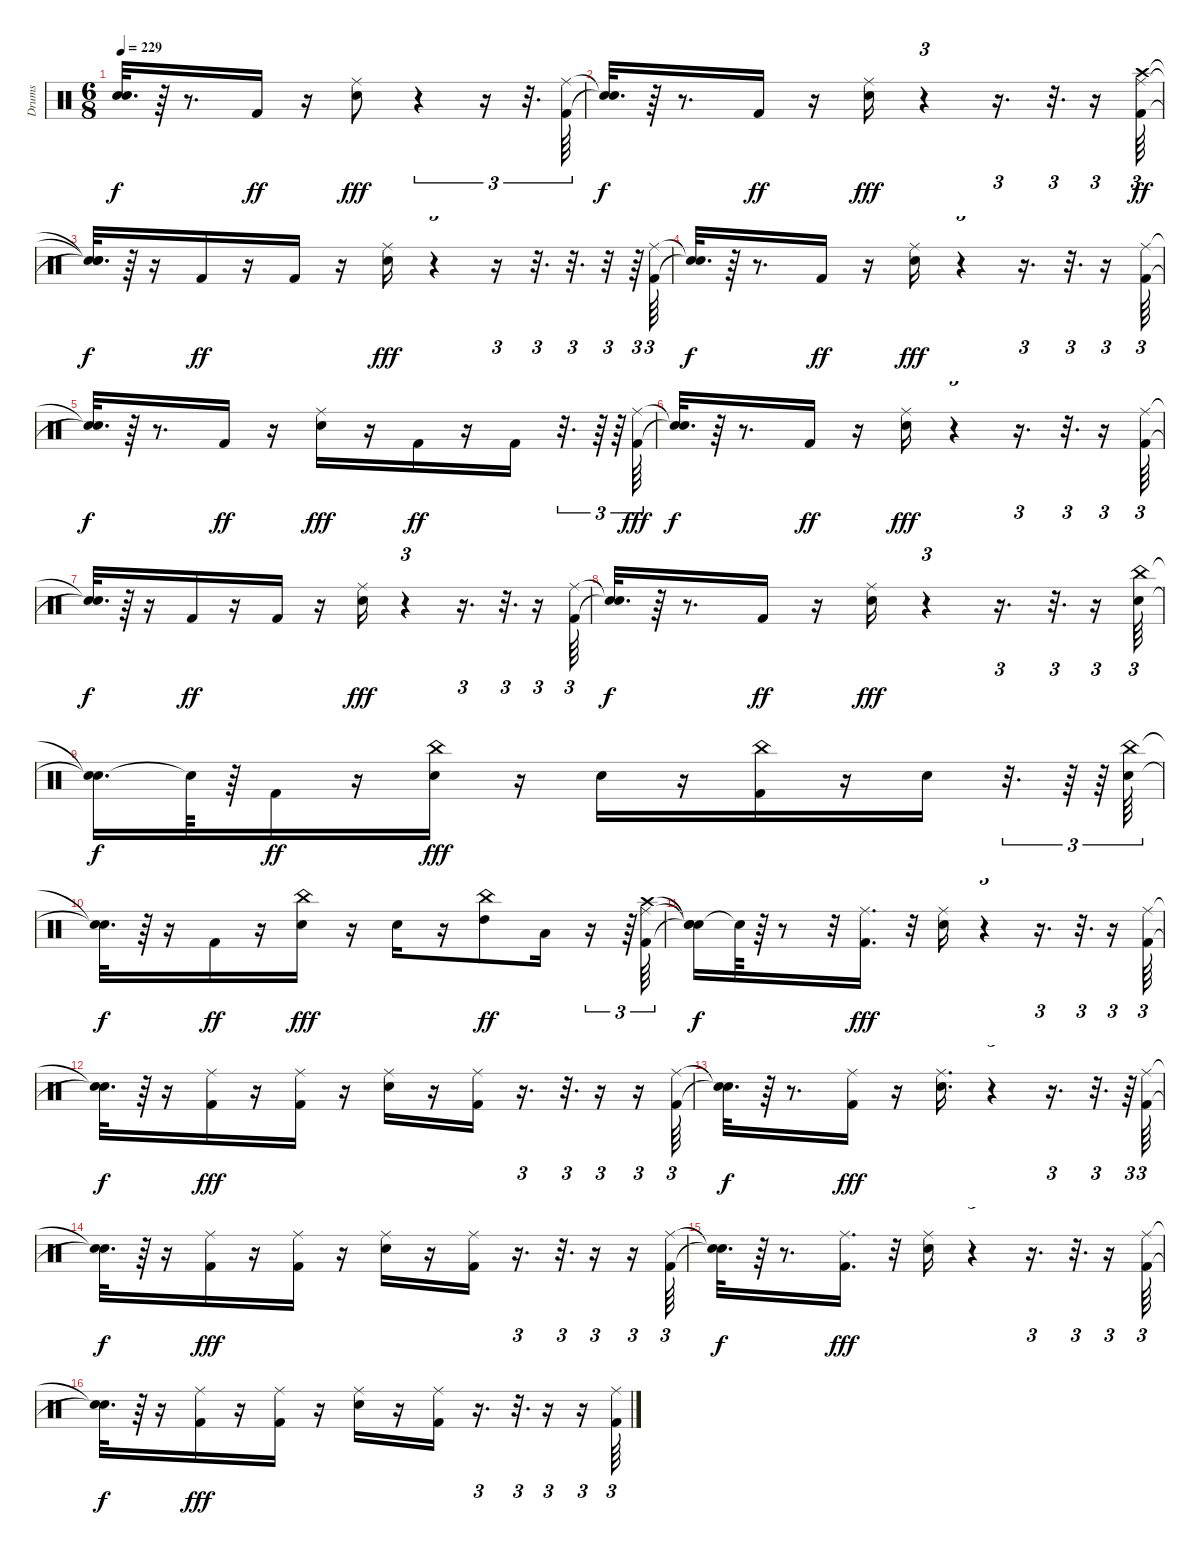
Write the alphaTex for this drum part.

\track ("Drums" "Drums") {instrument percussion}
\staff {score}
\articulation defaults
\ts (6 8)
\tempo 229
\clef neutral
\ks c
("Snare (hit)"{t} "Snare (hit)"{t}).32{d dy f} r.64 r.8{d} "Kick (hit) 2".16{dy ff} r.16 ("Snare (hit) 2" "Ride (middle)").8{dy fff} r.4{tu (3 2)} r.16{tu (3 2)} r.32{d tu (3 2)} ("Kick (hit) 2" "Ride (middle)").64{tu (3 2)} |
("Snare (hit)"{t} "Snare (hit)"{t}).32{d dy f} r.64 r.8{d} "Kick (hit) 2".16{dy ff} r.16 ("Snare (hit) 2" "Ride (middle)").16{dy fff} r.4{tu (3 2)} r.16{d tu (3 2)} r.32{d tu (3 2)} r.16{tu (3 2)} ("Kick (hit) 2" "Ride (middle)" "Crash high (hit)").64{tu (3 2) dy ff} |
("Snare (hit)"{t} "Snare (hit)"{t} "Snare (hit)"{t}).32{d dy f} r.64 r.16 "Kick (hit) 2".16{dy ff} r.16 "Kick (hit) 2".16 r.16 ("Snare (hit) 2" "Ride (middle)").16{dy fff} r.4{tu (3 2)} r.16{tu (3 2)} r.32{d tu (3 2)} r.32{d tu (3 2)} r.32{tu (3 2)} r.64{tu (3 2)} ("Kick (hit) 2" "Ride (middle)").64{tu (3 2)} |
("Snare (hit)"{t} "Snare (hit)"{t}).32{d dy f} r.64 r.8{d} "Kick (hit) 2".16{dy ff} r.16 ("Snare (hit) 2" "Ride (middle)").16{dy fff} r.4{tu (3 2)} r.16{d tu (3 2)} r.32{d tu (3 2)} r.16{tu (3 2)} ("Kick (hit) 2" "Ride (middle)").64{tu (3 2)} |
("Snare (hit)"{t} "Snare (hit)"{t}).32{d dy f} r.64 r.8{d} "Kick (hit) 2".16{dy ff} r.16 ("Snare (hit) 2" "Ride (middle)").16{dy fff} r.16 "Kick (hit) 2".16{dy ff} r.16 "Kick (hit) 2".16 r.32{d tu (3 2)} r.64{tu (3 2)} r.64{tu (3 2)} ("Kick (hit) 2" "Ride (middle)").64{tu (3 2) dy fff} |
("Snare (hit)"{t} "Snare (hit)"{t}).32{d dy f} r.64 r.8{d} "Kick (hit) 2".16{dy ff} r.16 ("Snare (hit) 2" "Ride (middle)").16{dy fff} r.4{tu (3 2)} r.16{d tu (3 2)} r.32{d tu (3 2)} r.16{tu (3 2)} ("Kick (hit) 2" "Ride (middle)").64{tu (3 2)} |
("Snare (hit)"{t} "Snare (hit)"{t}).32{d dy f} r.64 r.16 "Kick (hit) 2".16{dy ff} r.16 "Kick (hit) 2".16 r.16 ("Snare (hit) 2" "Ride (middle)").16{dy fff} r.4{tu (3 2)} r.16{d tu (3 2)} r.32{d tu (3 2)} r.16{tu (3 2)} ("Kick (hit) 2" "Ride (middle)").64{tu (3 2)} |
("Snare (hit)"{t} "Snare (hit)"{t}).32{d dy f} r.64 r.8{d} "Kick (hit) 2".16{dy ff} r.16 ("Snare (hit) 2" "Ride (middle)").16{dy fff} r.4{tu (3 2)} r.16{d tu (3 2)} r.32{d tu (3 2)} r.16{tu (3 2)} ("Snare (hit) 2" "China (hit)").64{tu (3 2)} |
("Snare (hit)"{t} "Snare (hit)"{t}).16{d dy f} "Snare (hit)"{t}.64 r.64 "Kick (hit) 2".16{dy ff} r.16 ("Snare (hit) 2" "China (hit)").16{dy fff} r.16 "Snare (hit) 2".16 r.16 ("Kick (hit) 2" "China (hit)").16 r.16 "Snare (hit) 2".16 r.32{d tu (3 2)} r.64{tu (3 2)} r.64{tu (3 2)} ("Snare (hit) 2" "China (hit)").64{tu (3 2)} |
("Snare (hit)"{t} "Snare (hit)"{t}).32{d dy f} r.64 r.16 "Kick (hit) 2".16{dy ff} r.16 ("Snare (hit) 2" "China (hit)").16{dy fff} r.16 "Snare (hit) 2".16 r.16 ("China (hit)" "High Tom (hit)").8{dy ff} "Low Tom (hit)".16{volume 16} r.16{tu (3 2)} r.64{tu (3 2)} ("Kick (hit) 2" "Ride (middle)" "Crash high (hit)").64{tu (3 2)} |
("Snare (hit)"{t} "Snare (hit)"{t} "Snare (hit)"{t}).16{dy f} "Snare (hit)"{t}.64 r.64 r.8 r.32 ("Kick (hit) 2" "Ride (middle)").16{d dy fff} r.32 ("Snare (hit) 2" "Ride (middle)").16 r.4{tu (3 2)} r.16{d tu (3 2)} r.32{d tu (3 2)} r.16{tu (3 2)} ("Kick (hit) 2" "Ride (middle)").64{tu (3 2)} |
("Snare (hit)"{t} "Snare (hit)"{t}).32{d dy f} r.64 r.16 ("Kick (hit) 2" "Ride (middle)").16{dy fff} r.16 ("Kick (hit) 2" "Ride (middle)").16 r.16 ("Snare (hit) 2" "Ride (middle)").16 r.16 ("Kick (hit) 2" "Ride (middle)").16 r.16{d tu (3 2)} r.32{d tu (3 2)} r.16{tu (3 2)} r.16{tu (3 2)} ("Kick (hit) 2" "Ride (middle)").64{tu (3 2)} |
("Snare (hit)"{t} "Snare (hit)"{t}).32{d dy f} r.64 r.8{d} ("Kick (hit) 2" "Ride (middle)").16{dy fff} r.16 ("Snare (hit) 2" "Ride (middle)").16{d} r.4{tu (3 2)} r.16{d tu (3 2)} r.32{d tu (3 2)} r.64{tu (3 2)} ("Kick (hit) 2" "Ride (middle)").64{tu (3 2)} |
("Snare (hit)"{t} "Snare (hit)"{t}).32{d dy f} r.64 r.16 ("Kick (hit) 2" "Ride (middle)").16{dy fff} r.16 ("Kick (hit) 2" "Ride (middle)").16 r.16 ("Snare (hit) 2" "Ride (middle)").16 r.16 ("Kick (hit) 2" "Ride (middle)").16 r.16{d tu (3 2)} r.32{d tu (3 2)} r.16{tu (3 2)} r.16{tu (3 2)} ("Kick (hit) 2" "Ride (middle)").64{tu (3 2)} |
("Snare (hit)"{t} "Snare (hit)"{t}).32{d dy f} r.64 r.8{d} ("Kick (hit) 2" "Ride (middle)").16{d dy fff} r.32 ("Snare (hit) 2" "Ride (middle)").16 r.4{tu (3 2)} r.16{d tu (3 2)} r.32{d tu (3 2)} r.16{tu (3 2)} ("Kick (hit) 2" "Ride (middle)").64{tu (3 2)} |
("Snare (hit)"{t} "Snare (hit)"{t}).32{d dy f} r.64 r.16 ("Kick (hit) 2" "Ride (middle)").16{dy fff} r.16 ("Kick (hit) 2" "Ride (middle)").16 r.16 ("Snare (hit) 2" "Ride (middle)").16 r.16 ("Kick (hit) 2" "Ride (middle)").16 r.16{d tu (3 2)} r.32{d tu (3 2)} r.16{tu (3 2)} r.16{tu (3 2)} ("Kick (hit) 2" "Ride (middle)").64{tu (3 2)}
